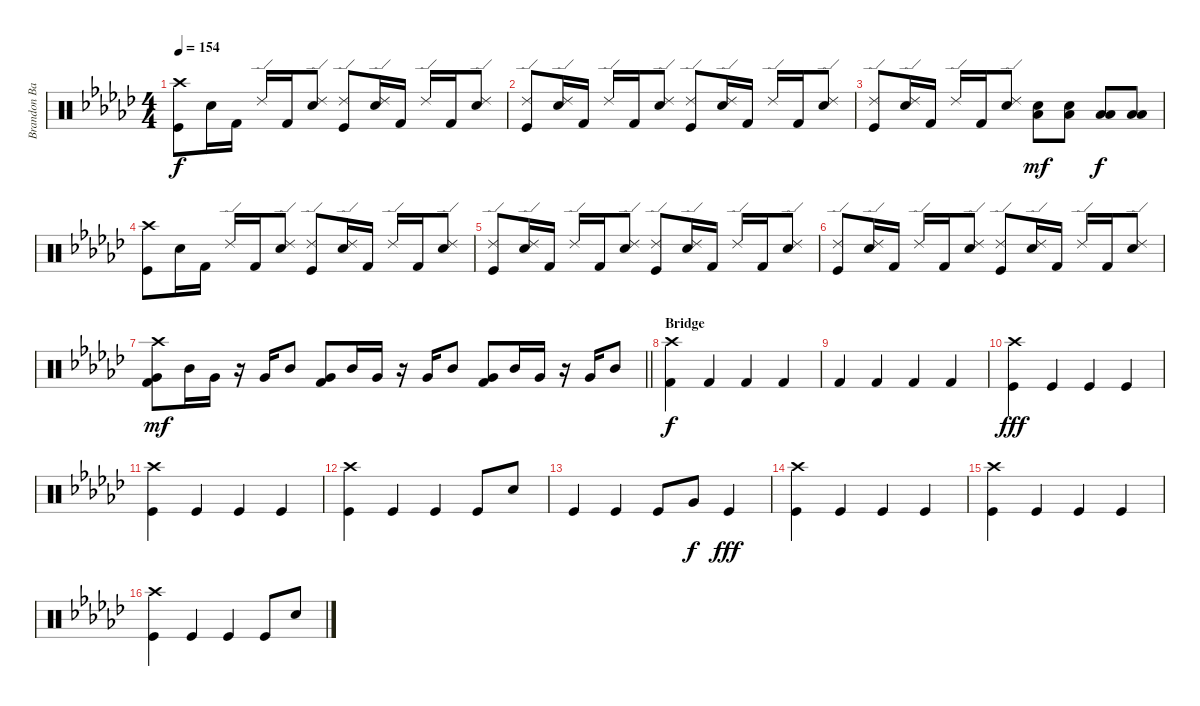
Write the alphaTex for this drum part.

\track ("Brandon Barnes - Drums" "Brandon Ba") {instrument percussion}
\staff {score}
\articulation defaults
\ts (4 4)
\tempo 154
\clef neutral
\ks gb
("Kick (hit)" "Crash high (hit)").8{dy f} "Snare (hit) 2".16 "Kick (hit) 2".16 "Ride (edge) 2".16 "Kick (hit) 2".16 ("Snare (hit) 2" "Ride (edge) 2").8 ("Kick (hit)" "Ride (edge) 2").8 ("Snare (hit) 2" "Ride (edge) 2").16 "Kick (hit) 2".16 "Ride (edge) 2".16 "Kick (hit) 2".16 ("Snare (hit) 2" "Ride (edge) 2").8 |
("Kick (hit)" "Ride (edge) 2").8 ("Snare (hit) 2" "Ride (edge) 2").16 "Kick (hit) 2".16 "Ride (edge) 2".16 "Kick (hit) 2".16 ("Snare (hit) 2" "Ride (edge) 2").8 ("Kick (hit)" "Ride (edge) 2").8 ("Snare (hit) 2" "Ride (edge) 2").16 "Kick (hit) 2".16 "Ride (edge) 2".16 "Kick (hit) 2".16 ("Snare (hit) 2" "Ride (edge) 2").8 |
("Kick (hit)" "Ride (edge) 2").8 ("Snare (hit) 2" "Ride (edge) 2").16 "Kick (hit) 2".16 "Ride (edge) 2".16 "Kick (hit) 2".16 ("Snare (hit) 2" "Ride (edge) 2").8 ("Snare (hit) 2" "Low Floor Tom (hit)").8{dy mf} ("Snare (hit) 2" "Low Floor Tom (hit)").8 ("Low Tom (hit)" "Low Floor Tom (hit)").8{dy f} ("Low Tom (hit)" "Low Floor Tom (hit)").8 |
("Kick (hit)" "Crash high (hit)").8 "Snare (hit) 2".16 "Kick (hit) 2".16 "Ride (edge) 2".16 "Kick (hit) 2".16 ("Snare (hit) 2" "Ride (edge) 2").8 ("Kick (hit)" "Ride (edge) 2").8 ("Snare (hit) 2" "Ride (edge) 2").16 "Kick (hit) 2".16 "Ride (edge) 2".16 "Kick (hit) 2".16 ("Snare (hit) 2" "Ride (edge) 2").8 |
("Kick (hit)" "Ride (edge) 2").8 ("Snare (hit) 2" "Ride (edge) 2").16 "Kick (hit) 2".16 "Ride (edge) 2".16 "Kick (hit) 2".16 ("Snare (hit) 2" "Ride (edge) 2").8 ("Kick (hit)" "Ride (edge) 2").8 ("Snare (hit) 2" "Ride (edge) 2").16 "Kick (hit) 2".16 "Ride (edge) 2".16 "Kick (hit) 2".16 ("Snare (hit) 2" "Ride (edge) 2").8 |
("Kick (hit)" "Ride (edge) 2").8 ("Snare (hit) 2" "Ride (edge) 2").16 "Kick (hit) 2".16 "Ride (edge) 2".16 "Kick (hit) 2".16 ("Snare (hit) 2" "Ride (edge) 2").8 ("Kick (hit)" "Ride (edge) 2").8 ("Snare (hit) 2" "Ride (edge) 2").16 "Kick (hit) 2".16 "Ride (edge) 2".16 "Kick (hit) 2".16 ("Snare (hit) 2" "Ride (edge) 2").8 |
\barLineRight lightlight
("Kick (hit) 2" "Very Low Tom (hit)" "Crash high (hit)").8{dy mf} "Mid Tom (hit)".16 "Very Low Tom (hit)".16 r.16 "Very Low Tom (hit)".16 "Mid Tom (hit)".8 ("Kick (hit) 2" "Very Low Tom (hit)").8 "Mid Tom (hit)".16 "Very Low Tom (hit)".16 r.16 "Very Low Tom (hit)".16 "Mid Tom (hit)".8 ("Kick (hit) 2" "Very Low Tom (hit)").8 "Mid Tom (hit)".16 "Very Low Tom (hit)".16 r.16 "Very Low Tom (hit)".16 "Mid Tom (hit)".8 |
\section ("" "Bridge")
("Crash high (hit)" "Kick (hit) 2").4{dy f} "Kick (hit) 2".4 "Kick (hit) 2".4 "Kick (hit) 2".4 |
"Kick (hit) 2".4 "Kick (hit) 2".4 "Kick (hit) 2".4 "Kick (hit) 2".4 |
("Kick (hit)" "Crash high (hit)").4{dy fff} "Kick (hit)".4 "Kick (hit)".4 "Kick (hit)".4 |
("Kick (hit)" "Crash high (hit)").4 "Kick (hit)".4 "Kick (hit)".4 "Kick (hit)".4 |
("Kick (hit)" "Crash high (hit)").4 "Kick (hit)".4 "Kick (hit)".4 "Kick (hit)".8 "Snare (hit) 2".8 |
"Kick (hit)".4 "Kick (hit)".4 "Kick (hit)".8 "Very Low Tom (hit)".8{dy f} "Kick (hit)".4{dy fff} |
("Kick (hit)" "Crash high (hit)").4 "Kick (hit)".4 "Kick (hit)".4 "Kick (hit)".4 |
("Kick (hit)" "Crash high (hit)").4 "Kick (hit)".4 "Kick (hit)".4 "Kick (hit)".4 |
("Kick (hit)" "Crash high (hit)").4 "Kick (hit)".4 "Kick (hit)".4 "Kick (hit)".8 "Snare (hit) 2".8
